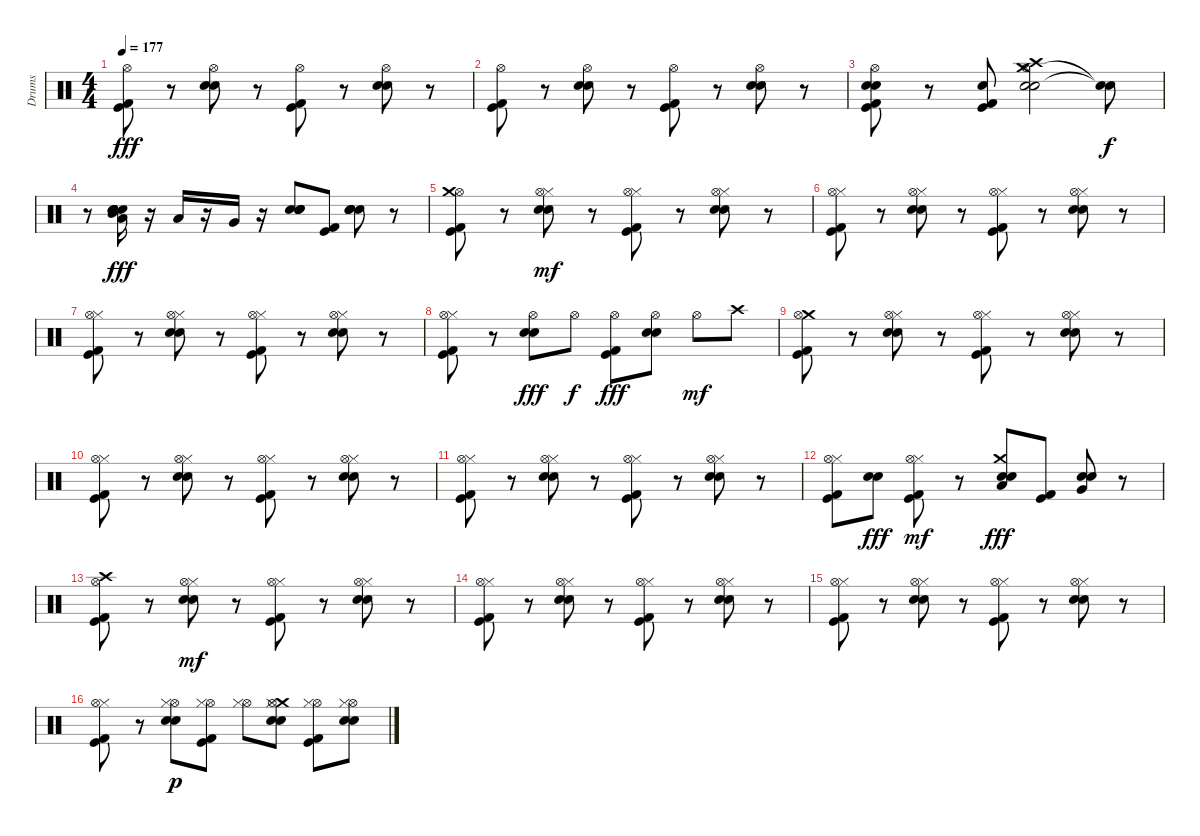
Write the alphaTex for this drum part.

\track ("Drums" "Drums") {instrument percussion}
\staff {score}
\articulation defaults
\ts (4 4)
\tempo 177
\clef neutral
\ks c
("Hi-Hat (open)" "Kick (hit) 2" "Kick (hit)").8{dy fff} r.8 ("Hi-Hat (open)" "Electric Snare (hit)" "Snare (hit) 2").8 r.8 ("Hi-Hat (open)" "Kick (hit) 2" "Kick (hit)").8 r.8 ("Hi-Hat (open)" "Electric Snare (hit)" "Snare (hit) 2").8 r.8 |
("Hi-Hat (open)" "Kick (hit) 2" "Kick (hit)").8 r.8 ("Hi-Hat (open)" "Electric Snare (hit)" "Snare (hit) 2").8 r.8 ("Hi-Hat (open)" "Kick (hit) 2" "Kick (hit)").8 r.8 ("Hi-Hat (open)" "Electric Snare (hit)" "Snare (hit) 2").8 r.8 |
("Hi-Hat (open)" "Electric Snare (hit)" "Snare (hit) 2" "Kick (hit) 2" "Kick (hit)").8 r.8 ("Snare (hit) 2" "Kick (hit) 2" "Kick (hit)").8 ("Hi-Hat (open)" "Electric Snare (hit)" "Snare (hit) 2" "Crash high (hit)" "Crash medium (hit)").2 ("Snare (hit)"{t} "Snare (hit)"{t}).8{dy f} |
r.8 ("Low Tom (hit)" "Snare (hit) 2" "Electric Snare (hit)" "Mid Tom (hit)" "Electric Snare (hit)" "Snare (hit) 2").16{dy fff} r.16 "Low Tom (hit)".16 r.16 "Very Low Tom (hit)".16 r.16 ("Snare (hit) 2" "Electric Snare (hit)" "Electric Snare (hit)" "Snare (hit) 2").8 ("Kick (hit)" "Kick (hit) 2").8 ("Electric Snare (hit)" "Snare (hit) 2" "Electric Snare (hit)" "Snare (hit) 2").8 r.8 |
("Hi-Hat (open)" "Kick (hit) 2" "Kick (hit)" "Crash medium (hit)").8 r.8 ("Electric Snare (hit)" "Snare (hit) 2" "Hi-Hat (closed)" "Hi-Hat (open)").8{dy mf} r.8 ("Kick (hit) 2" "Kick (hit)" "Hi-Hat (closed)" "Hi-Hat (open)").8 r.8 ("Electric Snare (hit)" "Snare (hit) 2" "Hi-Hat (closed)" "Hi-Hat (open)").8 r.8 |
("Hi-Hat (closed)" "Kick (hit) 2" "Kick (hit)" "Hi-Hat (open)").8 r.8 ("Hi-Hat (closed)" "Electric Snare (hit)" "Snare (hit) 2" "Hi-Hat (open)").8 r.8 ("Hi-Hat (closed)" "Kick (hit) 2" "Kick (hit)" "Hi-Hat (open)").8 r.8 ("Hi-Hat (closed)" "Electric Snare (hit)" "Snare (hit) 2" "Hi-Hat (open)").8 r.8 |
("Hi-Hat (closed)" "Kick (hit) 2" "Kick (hit)" "Hi-Hat (open)").8 r.8 ("Hi-Hat (closed)" "Electric Snare (hit)" "Snare (hit) 2" "Hi-Hat (open)").8 r.8 ("Hi-Hat (closed)" "Kick (hit) 2" "Kick (hit)" "Hi-Hat (open)").8 r.8 ("Hi-Hat (closed)" "Electric Snare (hit)" "Snare (hit) 2" "Hi-Hat (open)").8 r.8 |
("Kick (hit) 2" "Kick (hit)" "Hi-Hat (closed)" "Hi-Hat (open)").8 r.8 ("Hi-Hat (open)" "Electric Snare (hit)" "Snare (hit) 2").8{dy fff} "Hi-Hat (open)".8{dy f} ("Hi-Hat (open)" "Kick (hit) 2" "Kick (hit)").8{dy fff} ("Hi-Hat (open)" "Electric Snare (hit)" "Snare (hit) 2").8 "Hi-Hat (open)".8{dy mf} "Crash high (hit)".8 |
("Kick (hit) 2" "Kick (hit)" "Crash medium (hit)" "Hi-Hat (open)").8 r.8 ("Hi-Hat (closed)" "Electric Snare (hit)" "Snare (hit) 2" "Hi-Hat (open)").8 r.8 ("Hi-Hat (closed)" "Kick (hit) 2" "Kick (hit)" "Hi-Hat (open)").8 r.8 ("Hi-Hat (closed)" "Electric Snare (hit)" "Snare (hit) 2" "Hi-Hat (open)").8 r.8 |
("Hi-Hat (closed)" "Kick (hit) 2" "Kick (hit)" "Hi-Hat (open)").8 r.8 ("Hi-Hat (closed)" "Electric Snare (hit)" "Snare (hit) 2" "Hi-Hat (open)").8 r.8 ("Hi-Hat (closed)" "Kick (hit) 2" "Kick (hit)" "Hi-Hat (open)").8 r.8 ("Hi-Hat (closed)" "Electric Snare (hit)" "Snare (hit) 2" "Hi-Hat (open)").8 r.8 |
("Hi-Hat (closed)" "Kick (hit) 2" "Kick (hit)" "Hi-Hat (open)").8 r.8 ("Hi-Hat (closed)" "Electric Snare (hit)" "Snare (hit) 2" "Hi-Hat (open)").8 r.8 ("Hi-Hat (closed)" "Kick (hit) 2" "Kick (hit)" "Hi-Hat (open)").8 r.8 ("Hi-Hat (closed)" "Electric Snare (hit)" "Snare (hit) 2" "Hi-Hat (open)").8 r.8 |
("Kick (hit) 2" "Kick (hit)" "Hi-Hat (closed)" "Hi-Hat (open)").8 ("Electric Snare (hit)" "Snare (hit) 2").8{dy fff} ("Kick (hit) 2" "Kick (hit)" "Hi-Hat (closed)" "Hi-Hat (open)").8{dy mf} r.8 ("Electric Snare (hit)" "Snare (hit) 2" "Crash medium (hit)" "Low Tom (hit)").8{dy fff} ("Kick (hit) 2" "Kick (hit)").8 ("Electric Snare (hit)" "Snare (hit) 2" "Very Low Tom (hit)").8 r.8 |
("Crash high (hit)" "Kick (hit) 2" "Kick (hit)" "Hi-Hat (open)").8 r.8 ("Hi-Hat (closed)" "Electric Snare (hit)" "Snare (hit) 2" "Hi-Hat (open)").8{dy mf} r.8 ("Hi-Hat (closed)" "Kick (hit) 2" "Kick (hit)" "Hi-Hat (open)").8 r.8 ("Hi-Hat (closed)" "Electric Snare (hit)" "Snare (hit) 2" "Hi-Hat (open)").8 r.8 |
("Hi-Hat (closed)" "Kick (hit) 2" "Kick (hit)" "Hi-Hat (open)").8 r.8 ("Hi-Hat (closed)" "Electric Snare (hit)" "Snare (hit) 2" "Hi-Hat (open)").8 r.8 ("Hi-Hat (closed)" "Kick (hit) 2" "Kick (hit)" "Hi-Hat (open)").8 r.8 ("Hi-Hat (closed)" "Electric Snare (hit)" "Snare (hit) 2" "Hi-Hat (open)").8 r.8 |
("Hi-Hat (closed)" "Kick (hit) 2" "Kick (hit)" "Hi-Hat (open)").8 r.8 ("Hi-Hat (closed)" "Electric Snare (hit)" "Snare (hit) 2" "Hi-Hat (open)").8 r.8 ("Hi-Hat (closed)" "Kick (hit) 2" "Kick (hit)" "Hi-Hat (open)").8 r.8 ("Hi-Hat (closed)" "Electric Snare (hit)" "Snare (hit) 2" "Hi-Hat (open)").8 r.8 |
("Kick (hit)" "Kick (hit) 2" "Hi-Hat (closed)" "Hi-Hat (open)").8 r.8 ("Electric Snare (hit)" "Snare (hit) 2" "Hi-Hat (open)" "Hi-Hat (closed)").8{dy p} ("Kick (hit) 2" "Kick (hit)" "Hi-Hat (open)" "Hi-Hat (closed)").8 ("Hi-Hat (open)" "Hi-Hat (closed)").8 ("Electric Snare (hit)" "Snare (hit) 2" "Crash medium (hit)" "Hi-Hat (open)" "Hi-Hat (closed)").8 ("Kick (hit) 2" "Kick (hit)" "Hi-Hat (open)" "Hi-Hat (closed)").8 ("Electric Snare (hit)" "Snare (hit) 2" "Hi-Hat (open)" "Hi-Hat (closed)").8
